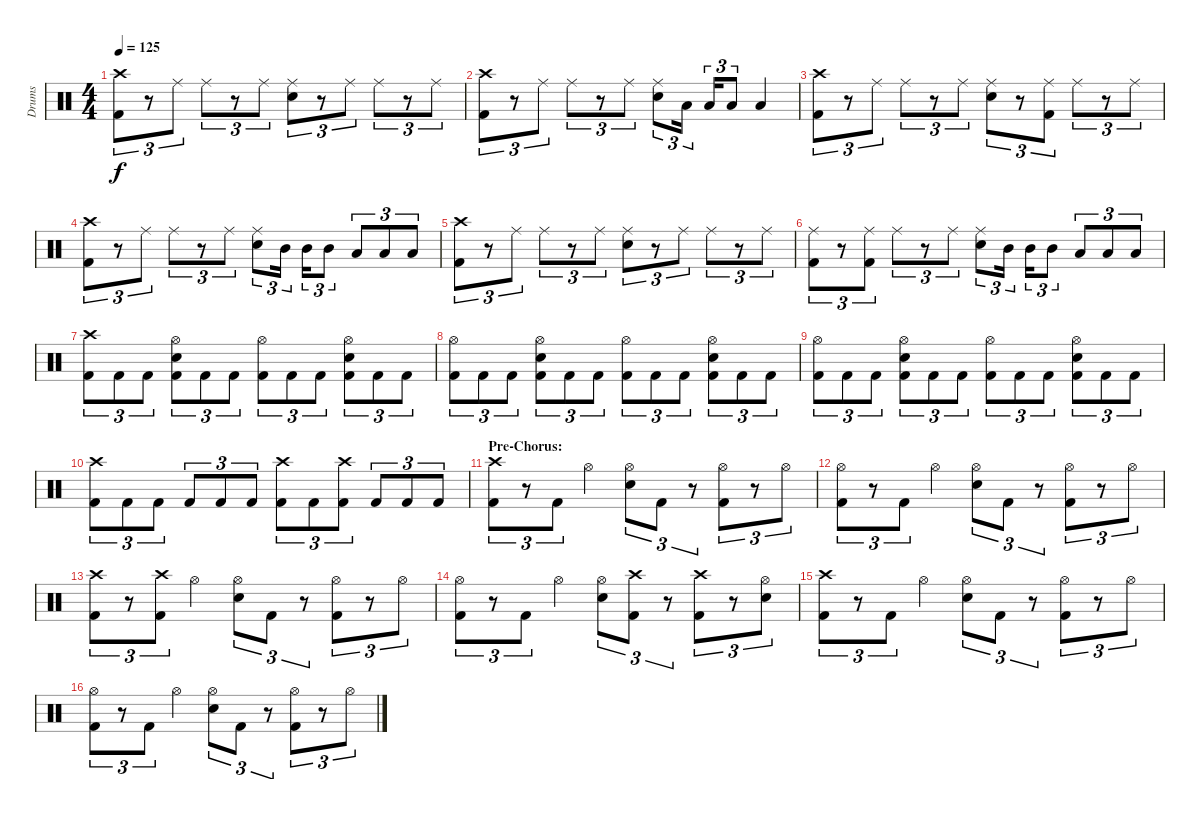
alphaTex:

\track ("Drums" "Drums") {instrument percussion}
\staff {score}
\articulation defaults
\ts (4 4)
\tempo 125
\clef neutral
\ks c
("Crash high (hit)" "Kick (hit) 2").8{tu (3 2) dy f} r.8{tu (3 2)} "Ride (middle)".8{tu (3 2)} "Ride (middle)".8{tu (3 2)} r.8{tu (3 2)} "Ride (middle)".8{tu (3 2)} ("Ride (middle)" "Electric Snare (hit)").8{tu (3 2)} r.8{tu (3 2)} "Ride (middle)".8{tu (3 2)} "Ride (middle)".8{tu (3 2)} r.8{tu (3 2)} "Ride (middle)".8{tu (3 2)} |
("Crash high (hit)" "Kick (hit) 2").8{tu (3 2)} r.8{tu (3 2)} "Ride (middle)".8{tu (3 2)} "Ride (middle)".8{tu (3 2)} r.8{tu (3 2)} "Ride (middle)".8{tu (3 2)} ("Ride (middle)" "Electric Snare (hit)").8{tu (3 2)} "Low Tom (hit)".16{tu (3 2)} "Low Tom (hit)".16{tu (3 2)} "Low Tom (hit)".8{tu (3 2)} "Low Tom (hit)".4 |
("Crash high (hit)" "Kick (hit) 2").8{tu (3 2)} r.8{tu (3 2)} "Ride (middle)".8{tu (3 2)} "Ride (middle)".8{tu (3 2)} r.8{tu (3 2)} "Ride (middle)".8{tu (3 2)} ("Ride (middle)" "Electric Snare (hit)").8{tu (3 2)} r.8{tu (3 2)} ("Ride (middle)" "Kick (hit) 2").8{tu (3 2)} "Ride (middle)".8{tu (3 2)} r.8{tu (3 2)} "Ride (middle)".8{tu (3 2)} |
("Crash high (hit)" "Kick (hit) 2").8{tu (3 2)} r.8{tu (3 2)} "Ride (middle)".8{tu (3 2)} "Ride (middle)".8{tu (3 2)} r.8{tu (3 2)} "Ride (middle)".8{tu (3 2)} ("Ride (middle)" "Electric Snare (hit)").8{tu (3 2)} "Mid Tom (hit)".16{tu (3 2)} "Mid Tom (hit)".16{tu (3 2)} "Mid Tom (hit)".8{tu (3 2)} "Low Tom (hit)".8{tu (3 2)} "Low Tom (hit)".8{tu (3 2)} "Low Tom (hit)".8{tu (3 2)} |
("Crash high (hit)" "Kick (hit) 2").8{tu (3 2)} r.8{tu (3 2)} "Ride (middle)".8{tu (3 2)} "Ride (middle)".8{tu (3 2)} r.8{tu (3 2)} "Ride (middle)".8{tu (3 2)} ("Ride (middle)" "Electric Snare (hit)").8{tu (3 2)} r.8{tu (3 2)} "Ride (middle)".8{tu (3 2)} "Ride (middle)".8{tu (3 2)} r.8{tu (3 2)} "Ride (middle)".8{tu (3 2)} |
("Ride (middle)" "Kick (hit) 2").8{tu (3 2)} r.8{tu (3 2)} ("Ride (middle)" "Kick (hit) 2").8{tu (3 2)} "Ride (middle)".8{tu (3 2)} r.8{tu (3 2)} "Ride (middle)".8{tu (3 2)} ("Ride (middle)" "Electric Snare (hit)").8{tu (3 2)} "Mid Tom (hit)".16{tu (3 2)} "Mid Tom (hit)".16{tu (3 2)} "Mid Tom (hit)".8{tu (3 2)} "Low Tom (hit)".8{tu (3 2)} "Low Tom (hit)".8{tu (3 2)} "Low Tom (hit)".8{tu (3 2)} |
("Crash high (hit)" "Kick (hit) 2").8{tu (3 2)} "Kick (hit) 2".8{tu (3 2)} "Kick (hit) 2".8{tu (3 2)} ("Hi-Hat (open)" "Electric Snare (hit)" "Kick (hit) 2").8{tu (3 2)} "Kick (hit) 2".8{tu (3 2)} "Kick (hit) 2".8{tu (3 2)} ("Hi-Hat (open)" "Kick (hit) 2").8{tu (3 2)} "Kick (hit) 2".8{tu (3 2)} "Kick (hit) 2".8{tu (3 2)} ("Hi-Hat (open)" "Electric Snare (hit)" "Kick (hit) 2").8{tu (3 2)} "Kick (hit) 2".8{tu (3 2)} "Kick (hit) 2".8{tu (3 2)} |
("Hi-Hat (open)" "Kick (hit) 2").8{tu (3 2)} "Kick (hit) 2".8{tu (3 2)} "Kick (hit) 2".8{tu (3 2)} ("Hi-Hat (open)" "Electric Snare (hit)" "Kick (hit) 2").8{tu (3 2)} "Kick (hit) 2".8{tu (3 2)} "Kick (hit) 2".8{tu (3 2)} ("Hi-Hat (open)" "Kick (hit) 2").8{tu (3 2)} "Kick (hit) 2".8{tu (3 2)} "Kick (hit) 2".8{tu (3 2)} ("Hi-Hat (open)" "Electric Snare (hit)" "Kick (hit) 2").8{tu (3 2)} "Kick (hit) 2".8{tu (3 2)} "Kick (hit) 2".8{tu (3 2)} |
("Hi-Hat (open)" "Kick (hit) 2").8{tu (3 2)} "Kick (hit) 2".8{tu (3 2)} "Kick (hit) 2".8{tu (3 2)} ("Hi-Hat (open)" "Electric Snare (hit)" "Kick (hit) 2").8{tu (3 2)} "Kick (hit) 2".8{tu (3 2)} "Kick (hit) 2".8{tu (3 2)} ("Hi-Hat (open)" "Kick (hit) 2").8{tu (3 2)} "Kick (hit) 2".8{tu (3 2)} "Kick (hit) 2".8{tu (3 2)} ("Hi-Hat (open)" "Electric Snare (hit)" "Kick (hit) 2").8{tu (3 2)} "Kick (hit) 2".8{tu (3 2)} "Kick (hit) 2".8{tu (3 2)} |
("Crash high (hit)" "Kick (hit) 2").8{tu (3 2)} "Kick (hit) 2".8{tu (3 2)} "Kick (hit) 2".8{tu (3 2)} "Kick (hit) 2".8{tu (3 2)} "Kick (hit) 2".8{tu (3 2)} "Kick (hit) 2".8{tu (3 2)} ("Crash high (hit)" "Kick (hit) 2").8{tu (3 2)} "Kick (hit) 2".8{tu (3 2)} ("Crash high (hit)" "Kick (hit) 2").8{tu (3 2)} "Kick (hit) 2".8{tu (3 2)} "Kick (hit) 2".8{tu (3 2)} "Kick (hit) 2".8{tu (3 2)} |
\section ("" "Pre-Chorus:")
("Crash high (hit)" "Kick (hit) 2").8{tu (3 2)} r.8{tu (3 2)} "Kick (hit) 2".8{tu (3 2)} "Hi-Hat (open)".4 ("Hi-Hat (open)" "Electric Snare (hit)").8{tu (3 2)} "Kick (hit) 2".8{tu (3 2)} r.8{tu (3 2)} ("Hi-Hat (open)" "Kick (hit) 2").8{tu (3 2)} r.8{tu (3 2)} "Hi-Hat (open)".8{tu (3 2)} |
("Hi-Hat (open)" "Kick (hit) 2").8{tu (3 2)} r.8{tu (3 2)} "Kick (hit) 2".8{tu (3 2)} "Hi-Hat (open)".4 ("Hi-Hat (open)" "Electric Snare (hit)").8{tu (3 2)} "Kick (hit) 2".8{tu (3 2)} r.8{tu (3 2)} ("Hi-Hat (open)" "Kick (hit) 2").8{tu (3 2)} r.8{tu (3 2)} "Hi-Hat (open)".8{tu (3 2)} |
("Crash high (hit)" "Kick (hit) 2").8{tu (3 2)} r.8{tu (3 2)} ("Crash high (hit)" "Kick (hit) 2").8{tu (3 2)} "Hi-Hat (open)".4 ("Hi-Hat (open)" "Electric Snare (hit)").8{tu (3 2)} "Kick (hit) 2".8{tu (3 2)} r.8{tu (3 2)} ("Hi-Hat (open)" "Kick (hit) 2").8{tu (3 2)} r.8{tu (3 2)} "Hi-Hat (open)".8{tu (3 2)} |
("Hi-Hat (open)" "Kick (hit) 2").8{tu (3 2)} r.8{tu (3 2)} "Kick (hit) 2".8{tu (3 2)} "Hi-Hat (open)".4 ("Hi-Hat (open)" "Electric Snare (hit)").8{tu (3 2)} ("Crash high (hit)" "Kick (hit) 2").8{tu (3 2)} r.8{tu (3 2)} ("Crash high (hit)" "Kick (hit) 2").8{tu (3 2)} r.8{tu (3 2)} ("Hi-Hat (open)" "Electric Snare (hit)").8{tu (3 2)} |
("Crash high (hit)" "Kick (hit) 2").8{tu (3 2)} r.8{tu (3 2)} "Kick (hit) 2".8{tu (3 2)} "Hi-Hat (open)".4 ("Hi-Hat (open)" "Electric Snare (hit)").8{tu (3 2)} "Kick (hit) 2".8{tu (3 2)} r.8{tu (3 2)} ("Hi-Hat (open)" "Kick (hit) 2").8{tu (3 2)} r.8{tu (3 2)} "Hi-Hat (open)".8{tu (3 2)} |
("Hi-Hat (open)" "Kick (hit) 2").8{tu (3 2)} r.8{tu (3 2)} "Kick (hit) 2".8{tu (3 2)} "Hi-Hat (open)".4 ("Hi-Hat (open)" "Electric Snare (hit)").8{tu (3 2)} "Kick (hit) 2".8{tu (3 2)} r.8{tu (3 2)} ("Hi-Hat (open)" "Kick (hit) 2").8{tu (3 2)} r.8{tu (3 2)} "Hi-Hat (open)".8{tu (3 2)}
